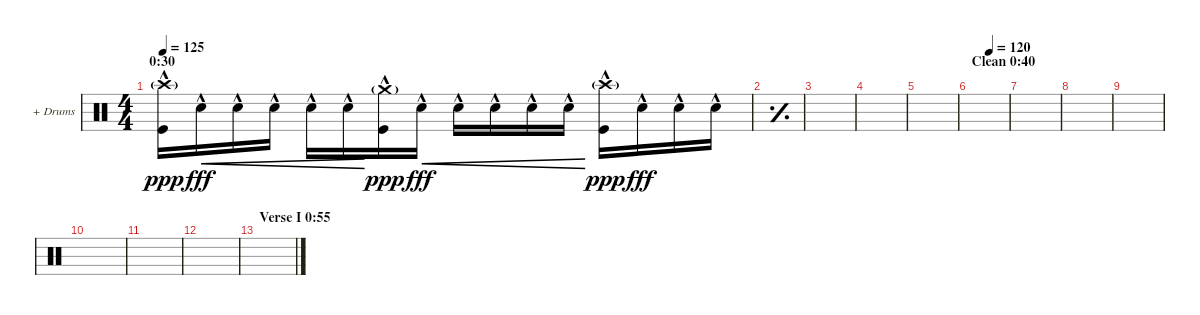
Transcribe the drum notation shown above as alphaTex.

\defaultSystemsLayout 4
\bracketExtendMode groupsimilarinstruments
\firstSystemTrackNameOrientation horizontal
\otherSystemsTrackNameOrientation horizontal
\track ("+ Drums" "+ Drums") {instrument percussion}
\staff {score}
\articulation defaults
\ts (4 4)
\section ("" "0:30")
\tempo 125
\clef neutral
\scale
0.333333
\ks c
("Crash high (hit)"{g} "Kick (hit)"{hac}).16{dy ppp} "Snare (hit) 2"{hac}.16{cre dy fff} "Snare (hit) 2"{hac}.16{cre} "Snare (hit) 2"{hac}.16{cre} "Snare (hit) 2"{hac}.16{cre} "Snare (hit) 2"{hac}.16{cre} ("Crash medium (hit)"{g} "Kick (hit)"{hac}).16{dy ppp} "Snare (hit) 2"{hac}.16{cre dy fff} "Snare (hit) 2"{hac}.16{cre} "Snare (hit) 2"{hac}.16{cre} "Snare (hit) 2"{hac}.16{cre} "Snare (hit) 2"{hac}.16{cre} ("Crash high (hit)"{g} "Kick (hit)"{hac}).16{dy ppp} "Snare (hit) 2"{hac}.16{dy fff} "Snare (hit) 2"{hac}.16 "Snare (hit) 2"{hac}.16 |
\simile simple
\scale
0.333333 |
\scale
0.333333 |
\scale
0.333333 |
\simile none
\scale
0.333333 |
\section ("" "Clean 0:40")
\tempo (120 0.5)
\scale
0.333333 |
\scale
0.333333 |
\scale
0.333333 |
\scale
0.333333 |
\scale
0.333333 |
\scale
0.333333 |
\scale
0.333333 |
\section ("" "Verse I 0:55")
\scale
0.333333 |
\scale
0.333333 |
\scale
0.333333 |
\scale
0.333333
